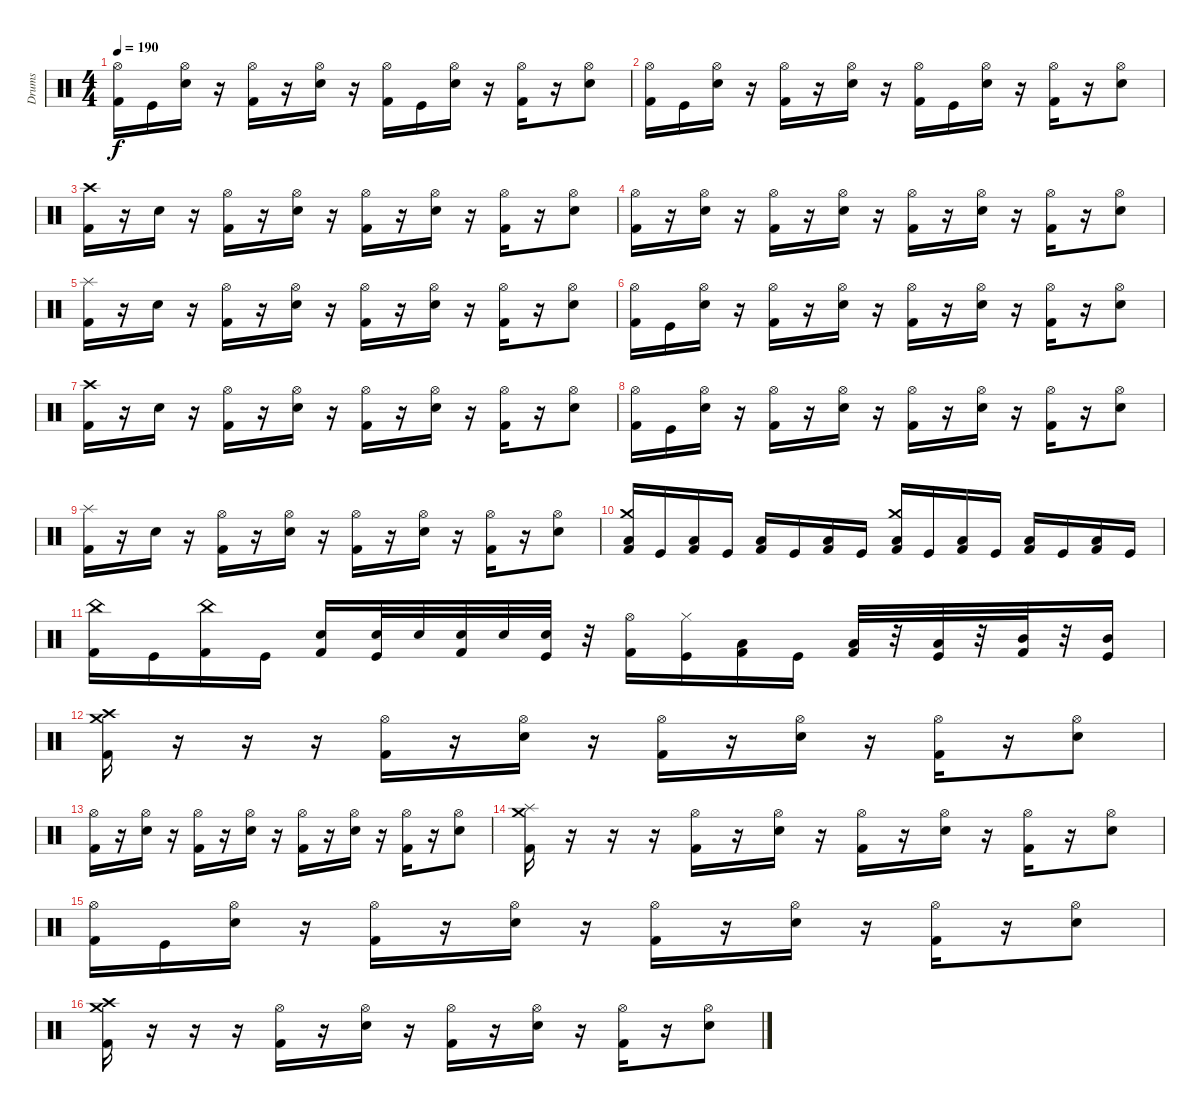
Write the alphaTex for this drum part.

\track ("Drums" "Drums") {instrument percussion}
\staff {score}
\articulation defaults
\ts (4 4)
\tempo 190
\clef neutral
\ks c
("Hi-Hat (open)" "Kick (hit) 2").16{dy f} "Kick (hit)".16 ("Hi-Hat (open)" "Electric Snare (hit)").16 r.16 ("Hi-Hat (open)" "Kick (hit) 2").16 r.16 ("Hi-Hat (open)" "Electric Snare (hit)").16 r.16 ("Hi-Hat (open)" "Kick (hit) 2").16 "Kick (hit)".16 ("Hi-Hat (open)" "Electric Snare (hit)").16 r.16 ("Hi-Hat (open)" "Kick (hit) 2").16 r.16 ("Hi-Hat (open)" "Electric Snare (hit)").8 |
("Hi-Hat (open)" "Kick (hit) 2").16 "Kick (hit)".16 ("Hi-Hat (open)" "Electric Snare (hit)").16 r.16 ("Hi-Hat (open)" "Kick (hit) 2").16 r.16 ("Hi-Hat (open)" "Electric Snare (hit)").16 r.16 ("Hi-Hat (open)" "Kick (hit) 2").16 "Kick (hit)".16 ("Hi-Hat (open)" "Electric Snare (hit)").16 r.16 ("Hi-Hat (open)" "Kick (hit) 2").16 r.16 ("Hi-Hat (open)" "Electric Snare (hit)").8 |
("Crash high (hit)" "Kick (hit) 2").16 r.16 "Electric Snare (hit)".16 r.16 ("Hi-Hat (open)" "Kick (hit) 2").16 r.16 ("Hi-Hat (open)" "Electric Snare (hit)").16 r.16 ("Hi-Hat (open)" "Kick (hit) 2").16 r.16 ("Hi-Hat (open)" "Electric Snare (hit)").16 r.16 ("Hi-Hat (open)" "Kick (hit) 2").16 r.16 ("Hi-Hat (open)" "Electric Snare (hit)").8 |
("Hi-Hat (open)" "Kick (hit) 2").16 r.16 ("Hi-Hat (open)" "Electric Snare (hit)").16 r.16 ("Hi-Hat (open)" "Kick (hit) 2").16 r.16 ("Hi-Hat (open)" "Electric Snare (hit)").16 r.16 ("Hi-Hat (open)" "Kick (hit) 2").16 r.16 ("Hi-Hat (open)" "Electric Snare (hit)").16 r.16 ("Hi-Hat (open)" "Kick (hit) 2").16 r.16 ("Hi-Hat (open)" "Electric Snare (hit)").8 |
("Splash (hit)" "Kick (hit) 2").16 r.16 "Electric Snare (hit)".16 r.16 ("Hi-Hat (open)" "Kick (hit) 2").16 r.16 ("Hi-Hat (open)" "Electric Snare (hit)").16 r.16 ("Hi-Hat (open)" "Kick (hit) 2").16 r.16 ("Hi-Hat (open)" "Electric Snare (hit)").16 r.16 ("Hi-Hat (open)" "Kick (hit) 2").16 r.16 ("Hi-Hat (open)" "Electric Snare (hit)").8 |
("Hi-Hat (open)" "Kick (hit) 2").16 "Kick (hit)".16 ("Hi-Hat (open)" "Electric Snare (hit)").16 r.16 ("Hi-Hat (open)" "Kick (hit) 2").16 r.16 ("Hi-Hat (open)" "Electric Snare (hit)").16 r.16 ("Hi-Hat (open)" "Kick (hit) 2").16 r.16 ("Hi-Hat (open)" "Electric Snare (hit)").16 r.16 ("Hi-Hat (open)" "Kick (hit) 2").16 r.16 ("Hi-Hat (open)" "Electric Snare (hit)").8 |
("Crash high (hit)" "Kick (hit) 2").16 r.16 "Electric Snare (hit)".16 r.16 ("Hi-Hat (open)" "Kick (hit) 2").16 r.16 ("Hi-Hat (open)" "Electric Snare (hit)").16 r.16 ("Hi-Hat (open)" "Kick (hit) 2").16 r.16 ("Hi-Hat (open)" "Electric Snare (hit)").16 r.16 ("Hi-Hat (open)" "Kick (hit) 2").16 r.16 ("Hi-Hat (open)" "Electric Snare (hit)").8 |
("Hi-Hat (open)" "Kick (hit) 2").16 "Kick (hit)".16 ("Hi-Hat (open)" "Electric Snare (hit)").16 r.16 ("Hi-Hat (open)" "Kick (hit) 2").16 r.16 ("Hi-Hat (open)" "Electric Snare (hit)").16 r.16 ("Hi-Hat (open)" "Kick (hit) 2").16 r.16 ("Hi-Hat (open)" "Electric Snare (hit)").16 r.16 ("Hi-Hat (open)" "Kick (hit) 2").16 r.16 ("Hi-Hat (open)" "Electric Snare (hit)").8 |
("Splash (hit)" "Kick (hit) 2").16 r.16 "Electric Snare (hit)".16 r.16 ("Hi-Hat (open)" "Kick (hit) 2").16 r.16 ("Hi-Hat (open)" "Electric Snare (hit)").16 r.16 ("Hi-Hat (open)" "Kick (hit) 2").16 r.16 ("Hi-Hat (open)" "Electric Snare (hit)").16 r.16 ("Hi-Hat (open)" "Kick (hit) 2").16 r.16 ("Hi-Hat (open)" "Electric Snare (hit)").8 |
("Crash medium (hit)" "Low Tom (hit)" "Kick (hit) 2").16 "Kick (hit)".16 ("Low Tom (hit)" "Kick (hit) 2").16 "Kick (hit)".16 ("Low Tom (hit)" "Kick (hit) 2").16 "Kick (hit)".16 ("Low Tom (hit)" "Kick (hit) 2").16 "Kick (hit)".16 ("Crash medium (hit)" "Low Tom (hit)" "Kick (hit) 2").16 "Kick (hit)".16 ("Low Tom (hit)" "Kick (hit) 2").16 "Kick (hit)".16 ("Low Tom (hit)" "Kick (hit) 2").16 "Kick (hit)".16 ("Low Tom (hit)" "Kick (hit) 2").16 "Kick (hit)".16 |
("China (hit)" "Kick (hit) 2").16 "Kick (hit)".16 ("China (hit)" "Kick (hit) 2").16 "Kick (hit)".16 ("Electric Snare (hit)" "Kick (hit) 2").16 ("Electric Snare (hit)" "Kick (hit)").32 "Electric Snare (hit)".32 ("Electric Snare (hit)" "Kick (hit) 2").32 "Electric Snare (hit)".32 ("Electric Snare (hit)" "Kick (hit)").32 r.32 ("Hi-Hat (open)" "Kick (hit) 2").16 ("Hi-Hat (closed)" "Kick (hit)").16 ("Low Tom (hit)" "Kick (hit) 2").16 "Kick (hit)".16 ("Low Tom (hit)" "Kick (hit) 2").32 r.32 ("Low Tom (hit)" "Kick (hit)").32 r.32 ("Mid Tom (hit)" "Kick (hit) 2").32 r.32 ("Mid Tom (hit)" "Kick (hit)").16 |
("Crash high (hit)" "Crash medium (hit)" "Kick (hit) 2").16 r.16 r.16 r.16 ("Hi-Hat (open)" "Kick (hit) 2").16 r.16 ("Hi-Hat (open)" "Electric Snare (hit)").16 r.16 ("Hi-Hat (open)" "Kick (hit) 2").16 r.16 ("Hi-Hat (open)" "Electric Snare (hit)").16 r.16 ("Hi-Hat (open)" "Kick (hit) 2").16 r.16 ("Hi-Hat (open)" "Electric Snare (hit)").8 |
("Hi-Hat (open)" "Kick (hit) 2").16 r.16 ("Hi-Hat (open)" "Electric Snare (hit)").16 r.16 ("Hi-Hat (open)" "Kick (hit) 2").16 r.16 ("Hi-Hat (open)" "Electric Snare (hit)").16 r.16 ("Hi-Hat (open)" "Kick (hit) 2").16 r.16 ("Hi-Hat (open)" "Electric Snare (hit)").16 r.16 ("Hi-Hat (open)" "Kick (hit) 2").16 r.16 ("Hi-Hat (open)" "Electric Snare (hit)").8 |
("Splash (hit)" "Crash medium (hit)" "Kick (hit) 2").16 r.16 r.16 r.16 ("Hi-Hat (open)" "Kick (hit) 2").16 r.16 ("Hi-Hat (open)" "Electric Snare (hit)").16 r.16 ("Hi-Hat (open)" "Kick (hit) 2").16 r.16 ("Hi-Hat (open)" "Electric Snare (hit)").16 r.16 ("Hi-Hat (open)" "Kick (hit) 2").16 r.16 ("Hi-Hat (open)" "Electric Snare (hit)").8 |
("Hi-Hat (open)" "Kick (hit) 2").16 "Kick (hit)".16 ("Hi-Hat (open)" "Electric Snare (hit)").16 r.16 ("Hi-Hat (open)" "Kick (hit) 2").16 r.16 ("Hi-Hat (open)" "Electric Snare (hit)").16 r.16 ("Hi-Hat (open)" "Kick (hit) 2").16 r.16 ("Hi-Hat (open)" "Electric Snare (hit)").16 r.16 ("Hi-Hat (open)" "Kick (hit) 2").16 r.16 ("Hi-Hat (open)" "Electric Snare (hit)").8 |
("Crash high (hit)" "Crash medium (hit)" "Kick (hit) 2").16 r.16 r.16 r.16 ("Hi-Hat (open)" "Kick (hit) 2").16 r.16 ("Hi-Hat (open)" "Electric Snare (hit)").16 r.16 ("Hi-Hat (open)" "Kick (hit) 2").16 r.16 ("Hi-Hat (open)" "Electric Snare (hit)").16 r.16 ("Hi-Hat (open)" "Kick (hit) 2").16 r.16 ("Hi-Hat (open)" "Electric Snare (hit)").8
